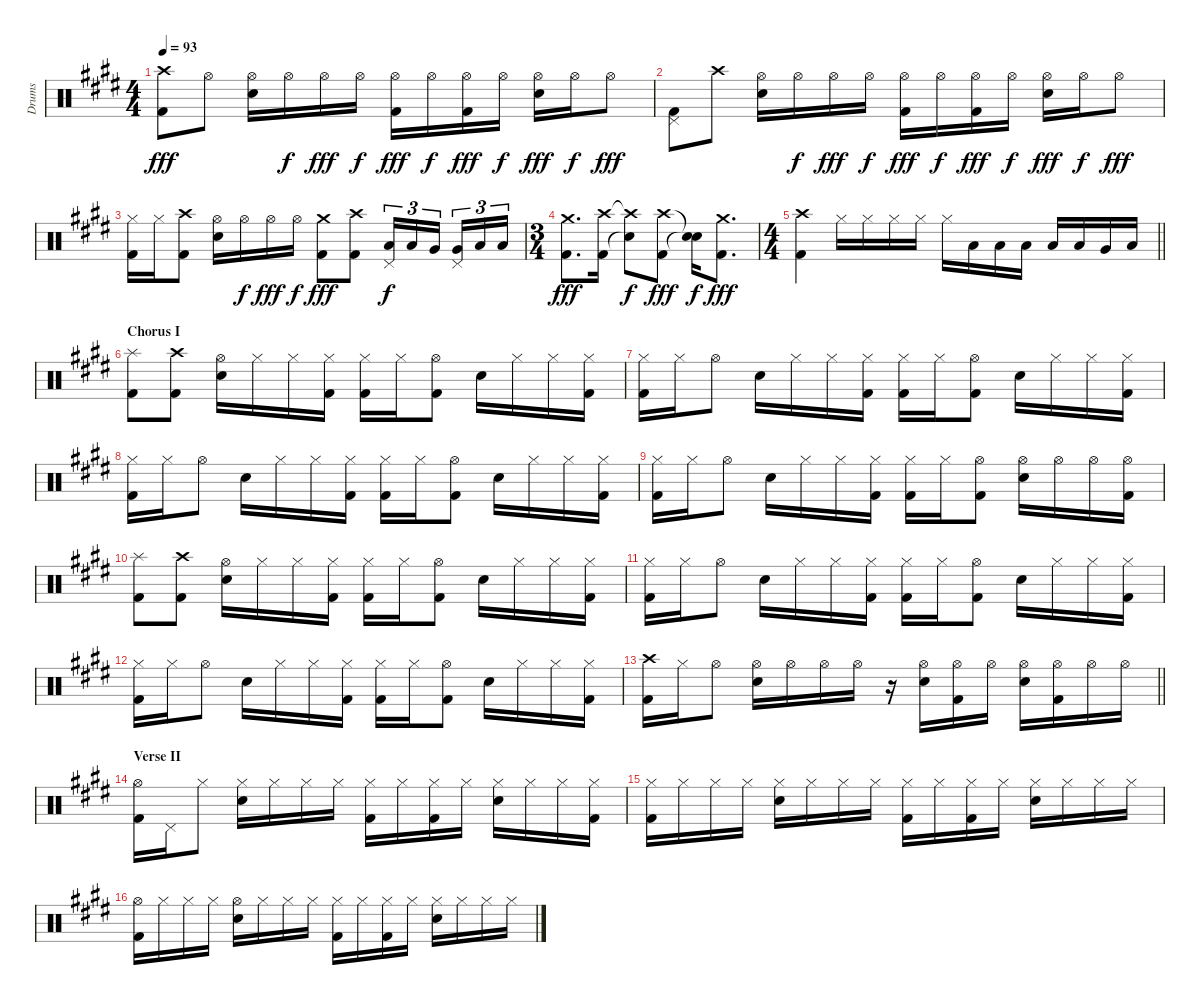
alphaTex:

\track ("Drums" "Drums") {instrument percussion}
\staff {score}
\articulation defaults
\ts (4 4)
\tempo 93
\clef neutral
\ks e
("Crash high (hit)" "Kick (hit) 2").8{dy fff} "Hi-Hat (open)".8 ("Hi-Hat (open)" "Snare (hit) 2").16 "Hi-Hat (open)".16{dy f} "Hi-Hat (open)".16{dy fff} "Hi-Hat (open)".16{dy f} ("Hi-Hat (open)" "Kick (hit) 2").16{dy fff} "Hi-Hat (open)".16{dy f} ("Hi-Hat (open)" "Kick (hit) 2").16{dy fff} "Hi-Hat (open)".16{dy f} ("Hi-Hat (open)" "Snare (hit) 2").16{dy fff} "Hi-Hat (open)".16{dy f} "Hi-Hat (open)".8{dy fff} |
("Pedal Hi-Hat (hit)" "Kick (hit) 2").8 "Crash high (hit)".8 ("Hi-Hat (open)" "Snare (hit) 2").16 "Hi-Hat (open)".16{dy f} "Hi-Hat (open)".16{dy fff} "Hi-Hat (open)".16{dy f} ("Hi-Hat (open)" "Kick (hit) 2").16{dy fff} "Hi-Hat (open)".16{dy f} ("Hi-Hat (open)" "Kick (hit) 2").16{dy fff} "Hi-Hat (open)".16{dy f} ("Hi-Hat (open)" "Snare (hit) 2").16{dy fff} "Hi-Hat (open)".16{dy f} "Hi-Hat (open)".8{dy fff} |
("Hi-Hat (closed)" "Kick (hit) 2").16 "Hi-Hat (closed)".16 ("Crash high (hit)" "Kick (hit) 2").8 ("Hi-Hat (open)" "Snare (hit) 2").16 "Hi-Hat (open)".16{dy f} "Hi-Hat (open)".16{dy fff} "Hi-Hat (open)".16{dy f} ("Crash medium (hit)" "Kick (hit) 2").8{dy fff} ("Crash high (hit)" "Kick (hit) 2").8 ("Pedal Hi-Hat (hit)" "Low Tom (hit)").16{tu (3 2) dy f} "Low Tom (hit)".16{tu (3 2)} "Very Low Tom (hit)".16{tu (3 2) beam splitsecondary} ("Pedal Hi-Hat (hit)" "Very Low Tom (hit)").16{tu (3 2)} "Low Floor Tom (hit)".16{tu (3 2)} "Low Floor Tom (hit)".16{tu (3 2)} |
\ts (3 4)
("Crash medium (hit)" "Kick (hit) 2").8{d dy fff} ("Crash high (hit)" "Kick (hit) 2").16 ("Crash high (hit)"{t} "Snare (hit)"{t}).8{dy f} ("Crash high (hit)" "Kick (hit) 2").8{dy fff} ("Snare (hit)"{t} "Snare (hit)"{t}).16{dy f} ("Crash medium (hit)" "Kick (hit) 2").8{d dy fff} |
\ts (4 4)
\barLineRight lightlight
("Crash high (hit)" "Kick (hit) 2").4 "Hi-Hat (closed)".16 "Hi-Hat (closed)".16 "Hi-Hat (closed)".16 "Hi-Hat (closed)".16 "Hi-Hat (closed)".16 "Low Tom (hit)".16 "Low Tom (hit)".16 "Low Tom (hit)".16 "Low Tom (hit)".16 "Low Tom (hit)".16 "Very Low Tom (hit)".16 "Low Floor Tom (hit)".16 |
\section ("" "Chorus I")
("Splash (hit)" "Kick (hit) 2").8 ("Crash high (hit)" "Kick (hit) 2").8 ("Hi-Hat (open)" "Snare (hit) 2").16 "Hi-Hat (closed)".16 "Hi-Hat (closed)".16 ("Hi-Hat (closed)" "Kick (hit) 2").16 ("Hi-Hat (closed)" "Kick (hit) 2").16 "Hi-Hat (closed)".16 ("Hi-Hat (open)" "Kick (hit) 2").8 "Snare (hit) 2".16 "Hi-Hat (closed)".16 "Hi-Hat (closed)".16 ("Hi-Hat (closed)" "Kick (hit) 2").16 |
("Hi-Hat (closed)" "Kick (hit) 2").16 "Hi-Hat (closed)".16 "Hi-Hat (open)".8 "Snare (hit) 2".16 "Hi-Hat (closed)".16 "Hi-Hat (closed)".16 ("Hi-Hat (closed)" "Kick (hit) 2").16 ("Hi-Hat (closed)" "Kick (hit) 2").16 "Hi-Hat (closed)".16 ("Hi-Hat (open)" "Kick (hit) 2").8 "Snare (hit) 2".16 "Hi-Hat (closed)".16 "Hi-Hat (closed)".16 ("Hi-Hat (closed)" "Kick (hit) 2").16 |
("Hi-Hat (closed)" "Kick (hit) 2").16 "Hi-Hat (closed)".16 "Hi-Hat (open)".8 "Snare (hit) 2".16 "Hi-Hat (closed)".16 "Hi-Hat (closed)".16 ("Hi-Hat (closed)" "Kick (hit) 2").16 ("Hi-Hat (closed)" "Kick (hit) 2").16 "Hi-Hat (closed)".16 ("Hi-Hat (open)" "Kick (hit) 2").8 "Snare (hit) 2".16 "Hi-Hat (closed)".16 "Hi-Hat (closed)".16 ("Hi-Hat (closed)" "Kick (hit) 2").16 |
("Hi-Hat (closed)" "Kick (hit) 2").16 "Hi-Hat (closed)".16 "Hi-Hat (open)".8 "Snare (hit) 2".16 "Hi-Hat (closed)".16 "Hi-Hat (closed)".16 ("Hi-Hat (closed)" "Kick (hit) 2").16 ("Hi-Hat (closed)" "Kick (hit) 2").16 "Hi-Hat (closed)".16 ("Hi-Hat (open)" "Kick (hit) 2").8 ("Hi-Hat (open)" "Snare (hit) 2").16 "Hi-Hat (open)".16 "Hi-Hat (open)".16 ("Hi-Hat (open)" "Kick (hit) 2").16 |
("Splash (hit)" "Kick (hit) 2").8 ("Crash high (hit)" "Kick (hit) 2").8 ("Hi-Hat (open)" "Snare (hit) 2").16 "Hi-Hat (closed)".16 "Hi-Hat (closed)".16 ("Hi-Hat (closed)" "Kick (hit) 2").16 ("Hi-Hat (closed)" "Kick (hit) 2").16 "Hi-Hat (closed)".16 ("Hi-Hat (open)" "Kick (hit) 2").8 "Snare (hit) 2".16 "Hi-Hat (closed)".16 "Hi-Hat (closed)".16 ("Hi-Hat (closed)" "Kick (hit) 2").16 |
("Hi-Hat (closed)" "Kick (hit) 2").16 "Hi-Hat (closed)".16 "Hi-Hat (open)".8 "Snare (hit) 2".16 "Hi-Hat (closed)".16 "Hi-Hat (closed)".16 ("Hi-Hat (closed)" "Kick (hit) 2").16 ("Hi-Hat (closed)" "Kick (hit) 2").16 "Hi-Hat (closed)".16 ("Hi-Hat (open)" "Kick (hit) 2").8 "Snare (hit) 2".16 "Hi-Hat (closed)".16 "Hi-Hat (closed)".16 ("Hi-Hat (closed)" "Kick (hit) 2").16 |
("Hi-Hat (closed)" "Kick (hit) 2").16 "Hi-Hat (closed)".16 "Hi-Hat (open)".8 "Snare (hit) 2".16 "Hi-Hat (closed)".16 "Hi-Hat (closed)".16 ("Hi-Hat (closed)" "Kick (hit) 2").16 ("Hi-Hat (closed)" "Kick (hit) 2").16 "Hi-Hat (closed)".16 ("Hi-Hat (open)" "Kick (hit) 2").8 "Snare (hit) 2".16 "Hi-Hat (closed)".16 "Hi-Hat (closed)".16 ("Hi-Hat (closed)" "Kick (hit) 2").16 |
\barLineRight lightlight
("Crash high (hit)" "Kick (hit) 2").16 "Hi-Hat (closed)".16 "Hi-Hat (open)".8 ("Hi-Hat (open)" "Snare (hit) 2").16 "Hi-Hat (open)".16 "Hi-Hat (open)".16 "Hi-Hat (open)".16 r.16 ("Hi-Hat (open)" "Snare (hit) 2").16 ("Hi-Hat (open)" "Kick (hit) 2").16 "Hi-Hat (open)".16 ("Hi-Hat (open)" "Snare (hit) 2").16 ("Hi-Hat (open)" "Kick (hit) 2").16 "Hi-Hat (open)".16 "Hi-Hat (open)".16 |
\section ("" "Verse II")
("Hi-Hat (open)" "Kick (hit) 2").16 "Pedal Hi-Hat (hit)".16 "Hi-Hat (closed)".8 ("Hi-Hat (closed)" "Snare (hit) 2").16 "Hi-Hat (closed)".16 "Hi-Hat (closed)".16 "Hi-Hat (closed)".16 ("Hi-Hat (closed)" "Kick (hit) 2").16 "Hi-Hat (closed)".16 ("Hi-Hat (closed)" "Kick (hit) 2").16 "Hi-Hat (closed)".16 ("Hi-Hat (closed)" "Snare (hit) 2").16 "Hi-Hat (closed)".16 "Hi-Hat (closed)".16 ("Hi-Hat (closed)" "Kick (hit) 2").16 |
("Hi-Hat (closed)" "Kick (hit) 2").16 "Hi-Hat (closed)".16 "Hi-Hat (closed)".16 "Hi-Hat (closed)".16 ("Hi-Hat (closed)" "Snare (hit) 2").16 "Hi-Hat (closed)".16 "Hi-Hat (closed)".16 "Hi-Hat (closed)".16 ("Hi-Hat (closed)" "Kick (hit) 2").16 "Hi-Hat (closed)".16 ("Hi-Hat (closed)" "Kick (hit) 2").16 "Hi-Hat (closed)".16 ("Hi-Hat (closed)" "Snare (hit) 2").16 "Hi-Hat (closed)".16 "Hi-Hat (closed)".16 "Hi-Hat (closed)".16 |
("Hi-Hat (open)" "Kick (hit) 2").16 "Hi-Hat (closed)".16 "Hi-Hat (closed)".16 "Hi-Hat (closed)".16 ("Hi-Hat (open)" "Snare (hit) 2").16 "Hi-Hat (closed)".16 "Hi-Hat (closed)".16 "Hi-Hat (closed)".16 ("Hi-Hat (closed)" "Kick (hit) 2").16 "Hi-Hat (closed)".16 ("Hi-Hat (closed)" "Kick (hit) 2").16 "Hi-Hat (closed)".16 ("Hi-Hat (closed)" "Snare (hit) 2").16 "Hi-Hat (closed)".16 "Hi-Hat (closed)".16 "Hi-Hat (closed)".16
